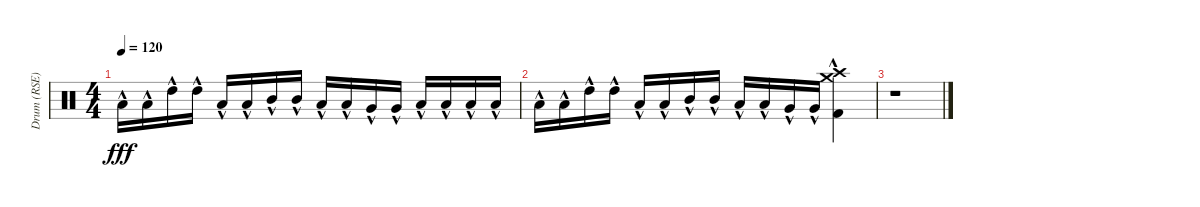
\track ("Drum (RSE)" "Drum (RSE)") {instrument percussion}
\staff {score}
\articulation defaults
\ts (4 4)
\tempo 120
\clef neutral
\ks c "Low Tom (hit)"{hac}.16{dy fff} "Low Tom (hit)"{hac}.16 "High Tom (hit)"{hac}.16 "High Tom (hit)"{hac}.16 "Low Tom (hit)"{hac}.16 "Low Tom (hit)"{hac}.16 "Mid Tom (hit)"{hac}.16 "Mid Tom (hit)"{hac}.16 "Low Tom (hit)"{hac}.16 "Low Tom (hit)"{hac}.16 "Very Low Tom (hit)"{hac}.16 "Very Low Tom (hit)"{hac}.16 "Low Floor Tom (hit)"{hac}.16 "Low Floor Tom (hit)"{hac}.16 "Low Tom (hit)"{hac}.16 "Low Tom (hit)"{hac}.16
|
"Low Tom (hit)"{hac}.16 "Low Tom (hit)"{hac}.16 "High Tom (hit)"{hac}.16 "High Tom (hit)"{hac}.16 "Low Tom (hit)"{hac}.16 "Low Tom (hit)"{hac}.16 "Mid Tom (hit)"{hac}.16 "Mid Tom (hit)"{hac}.16 "Low Tom (hit)"{hac}.16 "Low Tom (hit)"{hac}.16 "Very Low Tom (hit)"{hac}.16 "Very Low Tom (hit)"{hac}.16 ("Crash medium (hit)" "Crash high (hit)" "Kick (hit) 2"{hac}).4 |
r.1
